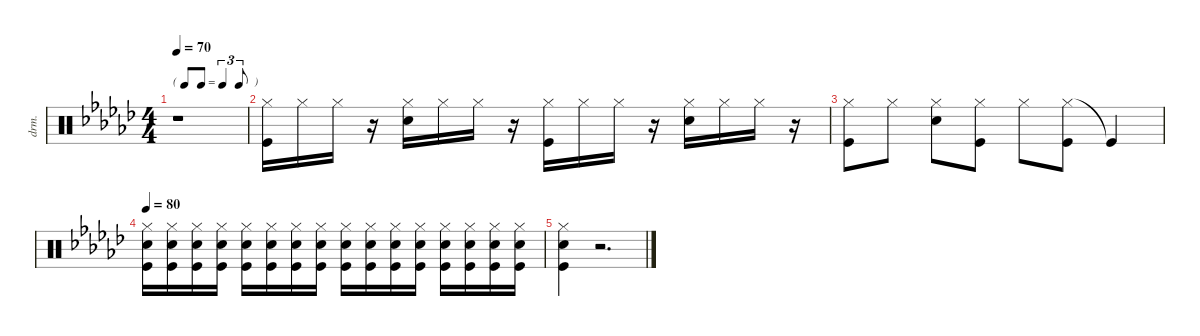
\defaultSystemsLayout 4
\hideDynamics
\bracketExtendMode nobrackets
\otherSystemsTrackNameOrientation horizontal
\track ("Percussions" "drm.") {defaultSystemsLayout 4 instrument percussion}
\staff {score}
\articulation defaults
\ts (4 4)
\tf triplet8th
\tempo 70
\clef neutral
\ks gb
r.1{dy f beam Down} |
("Hi-Hat (closed)"{acc forcenatural} "Kick (hit)"{acc forcenatural}).16{beam Down} "Hi-Hat (closed)"{acc forcenatural}.16{beam Down} "Hi-Hat (closed)"{acc forcenatural}.16{beam Down} r.16{beam Down} ("Hi-Hat (closed)"{acc forcenatural} "Snare (hit) 2"{acc forcenatural}).16{beam Down} "Hi-Hat (closed)"{acc forcenatural}.16{beam Down} "Hi-Hat (closed)"{acc forcenatural}.16{beam Down} r.16{beam Down} ("Hi-Hat (closed)"{acc forcenatural} "Kick (hit)"{acc forcenatural}).16{beam Down} "Hi-Hat (closed)"{acc forcenatural}.16{beam Down} "Hi-Hat (closed)"{acc forcenatural}.16{beam Down} r.16{beam Down} ("Hi-Hat (closed)"{acc forcenatural} "Snare (hit) 2"{acc forcenatural}).16{beam Down} "Hi-Hat (closed)"{acc forcenatural}.16{beam Down} "Hi-Hat (closed)"{acc forcenatural}.16{beam Down} r.16{beam Down} |
("Hi-Hat (closed)"{acc forcenatural} "Kick (hit)"{acc forcenatural}).8{beam Down} "Hi-Hat (closed)"{acc forcenatural}.8{beam Down} ("Hi-Hat (closed)"{acc forcenatural} "Snare (hit) 2"{acc forcenatural}).8{beam Down} ("Hi-Hat (closed)"{acc forcenatural} "Kick (hit)"{acc forcenatural}).8{beam Down} "Hi-Hat (closed)"{acc forcenatural}.8{beam Down} ("Hi-Hat (closed)"{acc forcenatural} "Kick (hit)"{acc forcenatural}).8{beam Down} "Kick (hit)"{t acc forcenatural}.4{beam Up} |
\tempo 80
("Hi-Hat (closed)"{acc forcenatural} "Snare (hit) 2"{acc forcenatural} "Kick (hit)"{acc forcenatural}).16{beam Down} ("Hi-Hat (closed)"{acc forcenatural} "Snare (hit) 2"{acc forcenatural} "Kick (hit)"{acc forcenatural}).16{beam Down} ("Hi-Hat (closed)"{acc forcenatural} "Snare (hit) 2"{acc forcenatural} "Kick (hit)"{acc forcenatural}).16{beam Down} ("Hi-Hat (closed)"{acc forcenatural} "Snare (hit) 2"{acc forcenatural} "Kick (hit)"{acc forcenatural}).16{beam Down} ("Hi-Hat (closed)"{acc forcenatural} "Snare (hit) 2"{acc forcenatural} "Kick (hit)"{acc forcenatural}).16{beam Down} ("Hi-Hat (closed)"{acc forcenatural} "Snare (hit) 2"{acc forcenatural} "Kick (hit)"{acc forcenatural}).16{beam Down} ("Hi-Hat (closed)"{acc forcenatural} "Snare (hit) 2"{acc forcenatural} "Kick (hit)"{acc forcenatural}).16{beam Down} ("Hi-Hat (closed)"{acc forcenatural} "Snare (hit) 2"{acc forcenatural} "Kick (hit)"{acc forcenatural}).16{beam Down} ("Hi-Hat (closed)"{acc forcenatural} "Snare (hit) 2"{acc forcenatural} "Kick (hit)"{acc forcenatural}).16{beam Down} ("Hi-Hat (closed)"{acc forcenatural} "Snare (hit) 2"{acc forcenatural} "Kick (hit)"{acc forcenatural}).16{beam Down} ("Hi-Hat (closed)"{acc forcenatural} "Snare (hit) 2"{acc forcenatural} "Kick (hit)"{acc forcenatural}).16{beam Down} ("Hi-Hat (closed)"{acc forcenatural} "Snare (hit) 2"{acc forcenatural} "Kick (hit)"{acc forcenatural}).16{beam Down} ("Hi-Hat (closed)"{acc forcenatural} "Snare (hit) 2"{acc forcenatural} "Kick (hit)"{acc forcenatural}).16{beam Down} ("Hi-Hat (closed)"{acc forcenatural} "Snare (hit) 2"{acc forcenatural} "Kick (hit)"{acc forcenatural}).16{beam Down} ("Hi-Hat (closed)"{acc forcenatural} "Snare (hit) 2"{acc forcenatural} "Kick (hit)"{acc forcenatural}).16{beam Down} ("Hi-Hat (closed)"{acc forcenatural} "Snare (hit) 2"{acc forcenatural} "Kick (hit)"{acc forcenatural}).16{beam Down} |
("Hi-Hat (closed)"{acc forcenatural} "Snare (hit) 2"{acc forcenatural} "Kick (hit)"{acc forcenatural}).4{beam Down} r.2{d beam Down}
